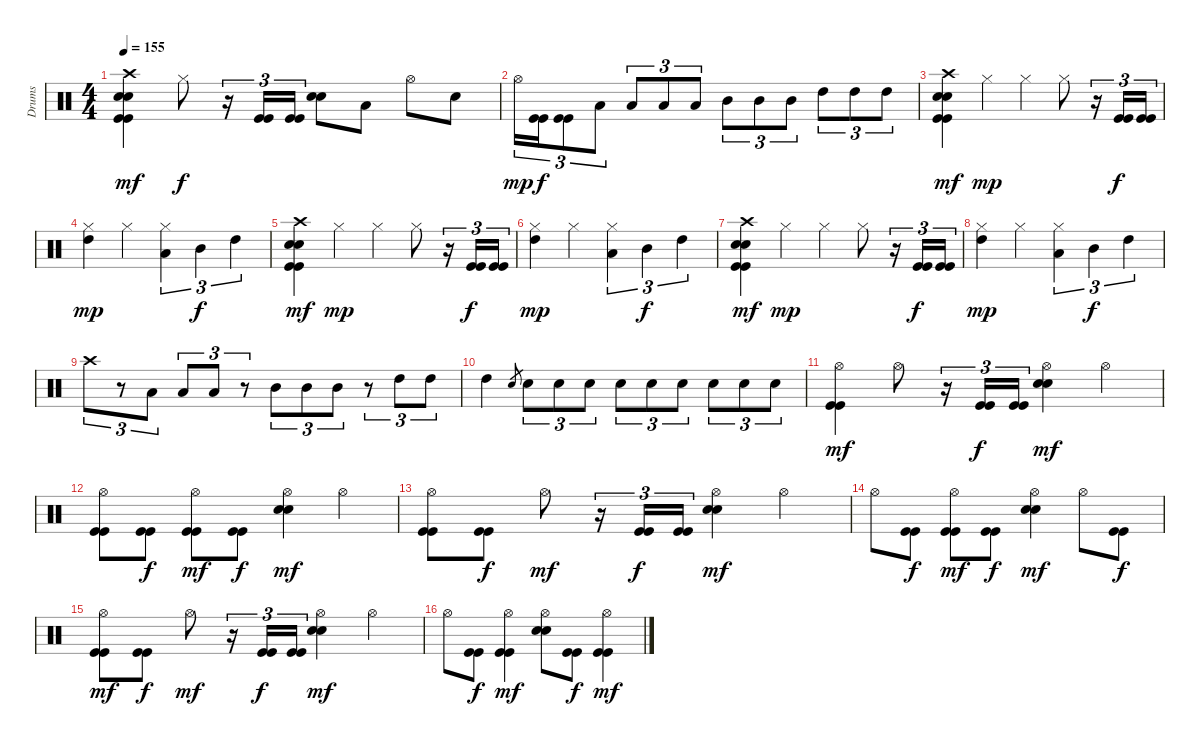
\track ("Drums" "Drums") {instrument percussion}
\staff {score}
\articulation defaults
\ts (4 4)
\tempo 155
\clef neutral
\ks c
("Crash high (hit)" "Snare (hit) 2" "Snare (hit) 2" "Kick (hit)" "Kick (hit)").4{dy mf} "Hi-Hat (closed)".8{dy f} r.16{tu (3 2)} ("Kick (hit)" "Kick (hit)").16{tu (3 2)} ("Kick (hit)" "Kick (hit)").16{tu (3 2)} ("Snare (hit) 2" "Snare (hit) 2").8 "Low Tom (hit)".8 "Hi-Hat (open)".8 "Snare (hit) 2".8 |
"Hi-Hat (open)".16{tu (3 2) dy mp} ("Kick (hit)" "Kick (hit)").16{tu (3 2) dy f} ("Kick (hit)" "Kick (hit)").8{tu (3 2)} "Low Tom (hit)".8{tu (3 2)} "Low Tom (hit)".8{tu (3 2)} "Low Tom (hit)".8{tu (3 2)} "Low Tom (hit)".8{tu (3 2)} "Mid Tom (hit)".8{tu (3 2)} "Mid Tom (hit)".8{tu (3 2)} "Mid Tom (hit)".8{tu (3 2)} "High Tom (hit)".8{tu (3 2)} "High Tom (hit)".8{tu (3 2)} "High Tom (hit)".8{tu (3 2)} |
("Crash high (hit)" "Snare (hit) 2" "Snare (hit) 2" "Kick (hit)" "Kick (hit)").4{dy mf} "Hi-Hat (closed)".4{dy mp} "Hi-Hat (closed)".4 "Hi-Hat (closed)".8 r.16{tu (3 2)} ("Kick (hit)" "Kick (hit)").16{tu (3 2) dy f} ("Kick (hit)" "Kick (hit)").16{tu (3 2)} |
("Hi-Hat (closed)" "High Tom (hit)").4{dy mp} "Hi-Hat (closed)".4 ("Hi-Hat (closed)" "Low Tom (hit)").4{tu (3 2)} "Mid Tom (hit)".4{tu (3 2) dy f} "High Tom (hit)".4{tu (3 2)} |
("Crash high (hit)" "Snare (hit) 2" "Snare (hit) 2" "Kick (hit)" "Kick (hit)").4{dy mf} "Hi-Hat (closed)".4{dy mp} "Hi-Hat (closed)".4 "Hi-Hat (closed)".8 r.16{tu (3 2)} ("Kick (hit)" "Kick (hit)").16{tu (3 2) dy f} ("Kick (hit)" "Kick (hit)").16{tu (3 2)} |
("Hi-Hat (closed)" "High Tom (hit)").4{dy mp} "Hi-Hat (closed)".4 ("Hi-Hat (closed)" "Low Tom (hit)").4{tu (3 2)} "Mid Tom (hit)".4{tu (3 2) dy f} "High Tom (hit)".4{tu (3 2)} |
("Crash high (hit)" "Snare (hit) 2" "Snare (hit) 2" "Kick (hit)" "Kick (hit)").4{dy mf} "Hi-Hat (closed)".4{dy mp} "Hi-Hat (closed)".4 "Hi-Hat (closed)".8 r.16{tu (3 2)} ("Kick (hit)" "Kick (hit)").16{tu (3 2) dy f} ("Kick (hit)" "Kick (hit)").16{tu (3 2)} |
("Hi-Hat (closed)" "High Tom (hit)").4{dy mp} "Hi-Hat (closed)".4 ("Hi-Hat (closed)" "Low Tom (hit)").4{tu (3 2)} "Mid Tom (hit)".4{tu (3 2) dy f} "High Tom (hit)".4{tu (3 2)} |
"Crash high (hit)".8{tu (3 2)} r.8{tu (3 2)} "Low Tom (hit)".8{tu (3 2)} "Low Tom (hit)".8{tu (3 2)} "Low Tom (hit)".8{tu (3 2)} r.8{tu (3 2)} "Mid Tom (hit)".8{tu (3 2)} "Mid Tom (hit)".8{tu (3 2)} "Mid Tom (hit)".8{tu (3 2)} r.8{tu (3 2)} "High Tom (hit)".8{tu (3 2)} "High Tom (hit)".8{tu (3 2)} |
"High Tom (hit)".4 "Snare (hit) 2".8{gr} "Snare (hit) 2".8{tu (3 2)} "Snare (hit) 2".8{tu (3 2)} "Snare (hit) 2".8{tu (3 2)} "Snare (hit) 2".8{tu (3 2)} "Snare (hit) 2".8{tu (3 2)} "Snare (hit) 2".8{tu (3 2)} "Snare (hit) 2".8{tu (3 2)} "Snare (hit) 2".8{tu (3 2)} "Snare (hit) 2".8{tu (3 2)} |
("Hi-Hat (open)" "Kick (hit)" "Kick (hit)").4{dy mf volume 12} "Hi-Hat (open)".8 r.16{tu (3 2)} ("Kick (hit)" "Kick (hit)").16{tu (3 2) dy f} ("Kick (hit)" "Kick (hit)").16{tu (3 2)} ("Hi-Hat (open)" "Snare (hit) 2" "Snare (hit) 2").4{dy mf} "Hi-Hat (open)".4 |
("Hi-Hat (open)" "Kick (hit)" "Kick (hit)").8 ("Kick (hit)" "Kick (hit)").8{dy f} ("Hi-Hat (open)" "Kick (hit)" "Kick (hit)").8{dy mf} ("Kick (hit)" "Kick (hit)").8{dy f} ("Hi-Hat (open)" "Snare (hit) 2" "Snare (hit) 2").4{dy mf} "Hi-Hat (open)".4 |
("Hi-Hat (open)" "Kick (hit)" "Kick (hit)").8 ("Kick (hit)" "Kick (hit)").8{dy f} "Hi-Hat (open)".8{dy mf} r.16{tu (3 2)} ("Kick (hit)" "Kick (hit)").16{tu (3 2) dy f} ("Kick (hit)" "Kick (hit)").16{tu (3 2)} ("Hi-Hat (open)" "Snare (hit) 2" "Snare (hit) 2").4{dy mf} "Hi-Hat (open)".4 |
"Hi-Hat (open)".8 ("Kick (hit)" "Kick (hit)").8{dy f} ("Hi-Hat (open)" "Kick (hit)" "Kick (hit)").8{dy mf} ("Kick (hit)" "Kick (hit)").8{dy f} ("Hi-Hat (open)" "Snare (hit) 2" "Snare (hit) 2").4{dy mf} "Hi-Hat (open)".8 ("Kick (hit)" "Kick (hit)").8{dy f} |
("Hi-Hat (open)" "Kick (hit)" "Kick (hit)").8{dy mf} ("Kick (hit)" "Kick (hit)").8{dy f} "Hi-Hat (open)".8{dy mf} r.16{tu (3 2)} ("Kick (hit)" "Kick (hit)").16{tu (3 2) dy f} ("Kick (hit)" "Kick (hit)").16{tu (3 2)} ("Hi-Hat (open)" "Snare (hit) 2" "Snare (hit) 2").4{dy mf} "Hi-Hat (open)".4 |
"Hi-Hat (open)".8 ("Kick (hit)" "Kick (hit)").8{dy f} ("Hi-Hat (open)" "Kick (hit)" "Kick (hit)").4{dy mf} ("Hi-Hat (open)" "Snare (hit) 2" "Snare (hit) 2").8 ("Kick (hit)" "Kick (hit)").8{dy f} ("Hi-Hat (open)" "Kick (hit)" "Kick (hit)").4{dy mf}
